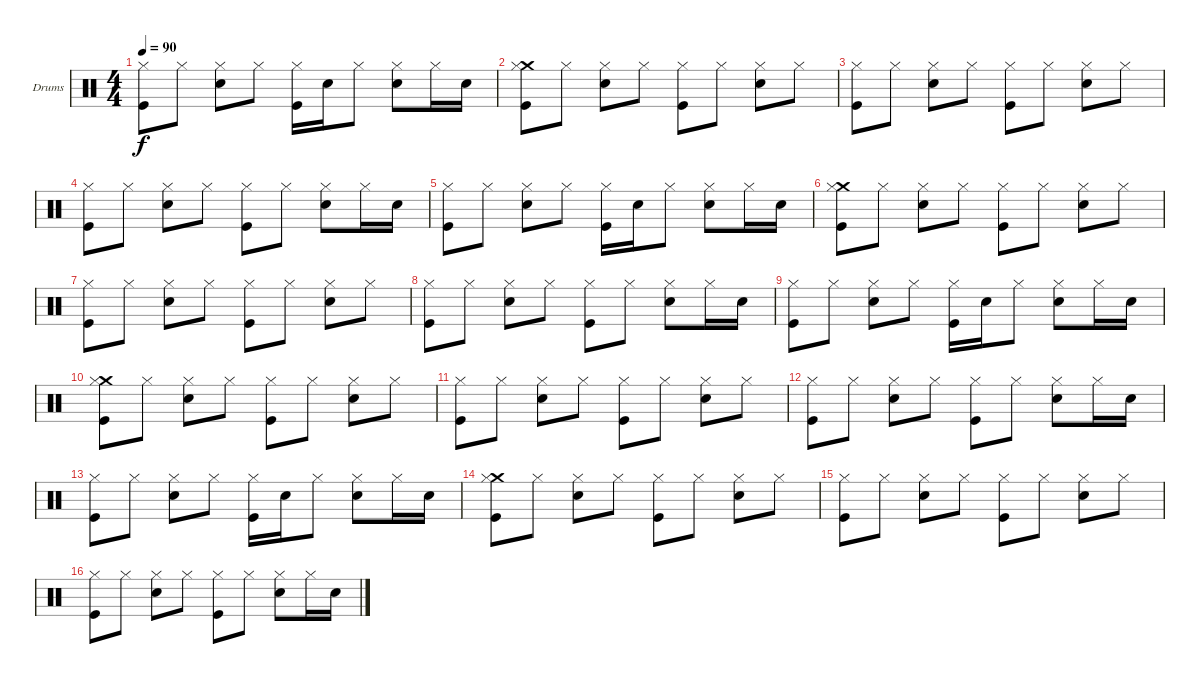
\bracketExtendMode groupsimilarinstruments
\firstSystemTrackNameOrientation horizontal
\otherSystemsTrackNameOrientation horizontal
\track ("Drumkit" "Drums") {instrument percussion}
\staff {score}
\articulation defaults
\ts (4 4)
\tempo 90
\clef neutral
\ks c
("Hi-Hat (closed)" "Kick (hit)").8{dy f} "Hi-Hat (closed)".8 ("Hi-Hat (closed)" "Snare (hit) 2").8 "Hi-Hat (closed)".8 ("Hi-Hat (closed)" "Kick (hit)").16 "Snare (hit) 2".16 "Hi-Hat (closed)".8 ("Hi-Hat (closed)" "Snare (hit) 2").8 "Hi-Hat (closed)".16 "Snare (hit) 2".16 |
("Crash medium (hit)" "Hi-Hat (closed)" "Kick (hit)").8 "Hi-Hat (closed)".8 ("Hi-Hat (closed)" "Snare (hit) 2").8 "Hi-Hat (closed)".8 ("Hi-Hat (closed)" "Kick (hit)").8 "Hi-Hat (closed)".8 ("Hi-Hat (closed)" "Snare (hit) 2").8 "Hi-Hat (closed)".8 |
("Hi-Hat (closed)" "Kick (hit)").8 "Hi-Hat (closed)".8 ("Hi-Hat (closed)" "Snare (hit) 2").8 "Hi-Hat (closed)".8 ("Hi-Hat (closed)" "Kick (hit)").8 "Hi-Hat (closed)".8 ("Hi-Hat (closed)" "Snare (hit) 2").8 "Hi-Hat (closed)".8 |
("Hi-Hat (closed)" "Kick (hit)").8 "Hi-Hat (closed)".8 ("Hi-Hat (closed)" "Snare (hit) 2").8 "Hi-Hat (closed)".8 ("Hi-Hat (closed)" "Kick (hit)").8 "Hi-Hat (closed)".8 ("Hi-Hat (closed)" "Snare (hit) 2").8 "Hi-Hat (closed)".16 "Snare (hit) 2".16 |
("Hi-Hat (closed)" "Kick (hit)").8 "Hi-Hat (closed)".8 ("Hi-Hat (closed)" "Snare (hit) 2").8 "Hi-Hat (closed)".8 ("Hi-Hat (closed)" "Kick (hit)").16 "Snare (hit) 2".16 "Hi-Hat (closed)".8 ("Hi-Hat (closed)" "Snare (hit) 2").8 "Hi-Hat (closed)".16 "Snare (hit) 2".16 |
("Crash medium (hit)" "Hi-Hat (closed)" "Kick (hit)").8 "Hi-Hat (closed)".8 ("Hi-Hat (closed)" "Snare (hit) 2").8 "Hi-Hat (closed)".8 ("Hi-Hat (closed)" "Kick (hit)").8 "Hi-Hat (closed)".8 ("Hi-Hat (closed)" "Snare (hit) 2").8 "Hi-Hat (closed)".8 |
("Hi-Hat (closed)" "Kick (hit)").8 "Hi-Hat (closed)".8 ("Hi-Hat (closed)" "Snare (hit) 2").8 "Hi-Hat (closed)".8 ("Hi-Hat (closed)" "Kick (hit)").8 "Hi-Hat (closed)".8 ("Hi-Hat (closed)" "Snare (hit) 2").8 "Hi-Hat (closed)".8 |
("Hi-Hat (closed)" "Kick (hit)").8 "Hi-Hat (closed)".8 ("Hi-Hat (closed)" "Snare (hit) 2").8 "Hi-Hat (closed)".8 ("Hi-Hat (closed)" "Kick (hit)").8 "Hi-Hat (closed)".8 ("Hi-Hat (closed)" "Snare (hit) 2").8 "Hi-Hat (closed)".16 "Snare (hit) 2".16 |
("Hi-Hat (closed)" "Kick (hit)").8 "Hi-Hat (closed)".8 ("Hi-Hat (closed)" "Snare (hit) 2").8 "Hi-Hat (closed)".8 ("Hi-Hat (closed)" "Kick (hit)").16 "Snare (hit) 2".16 "Hi-Hat (closed)".8 ("Hi-Hat (closed)" "Snare (hit) 2").8 "Hi-Hat (closed)".16 "Snare (hit) 2".16 |
("Crash medium (hit)" "Hi-Hat (closed)" "Kick (hit)").8 "Hi-Hat (closed)".8 ("Hi-Hat (closed)" "Snare (hit) 2").8 "Hi-Hat (closed)".8 ("Hi-Hat (closed)" "Kick (hit)").8 "Hi-Hat (closed)".8 ("Hi-Hat (closed)" "Snare (hit) 2").8 "Hi-Hat (closed)".8 |
("Hi-Hat (closed)" "Kick (hit)").8 "Hi-Hat (closed)".8 ("Hi-Hat (closed)" "Snare (hit) 2").8 "Hi-Hat (closed)".8 ("Hi-Hat (closed)" "Kick (hit)").8 "Hi-Hat (closed)".8 ("Hi-Hat (closed)" "Snare (hit) 2").8 "Hi-Hat (closed)".8 |
("Hi-Hat (closed)" "Kick (hit)").8 "Hi-Hat (closed)".8 ("Hi-Hat (closed)" "Snare (hit) 2").8 "Hi-Hat (closed)".8 ("Hi-Hat (closed)" "Kick (hit)").8 "Hi-Hat (closed)".8 ("Hi-Hat (closed)" "Snare (hit) 2").8 "Hi-Hat (closed)".16 "Snare (hit) 2".16 |
("Hi-Hat (closed)" "Kick (hit)").8 "Hi-Hat (closed)".8 ("Hi-Hat (closed)" "Snare (hit) 2").8 "Hi-Hat (closed)".8 ("Hi-Hat (closed)" "Kick (hit)").16 "Snare (hit) 2".16 "Hi-Hat (closed)".8 ("Hi-Hat (closed)" "Snare (hit) 2").8 "Hi-Hat (closed)".16 "Snare (hit) 2".16 |
("Crash medium (hit)" "Hi-Hat (closed)" "Kick (hit)").8 "Hi-Hat (closed)".8 ("Hi-Hat (closed)" "Snare (hit) 2").8 "Hi-Hat (closed)".8 ("Hi-Hat (closed)" "Kick (hit)").8 "Hi-Hat (closed)".8 ("Hi-Hat (closed)" "Snare (hit) 2").8 "Hi-Hat (closed)".8 |
("Hi-Hat (closed)" "Kick (hit)").8 "Hi-Hat (closed)".8 ("Hi-Hat (closed)" "Snare (hit) 2").8 "Hi-Hat (closed)".8 ("Hi-Hat (closed)" "Kick (hit)").8 "Hi-Hat (closed)".8 ("Hi-Hat (closed)" "Snare (hit) 2").8 "Hi-Hat (closed)".8 |
("Hi-Hat (closed)" "Kick (hit)").8 "Hi-Hat (closed)".8 ("Hi-Hat (closed)" "Snare (hit) 2").8 "Hi-Hat (closed)".8 ("Hi-Hat (closed)" "Kick (hit)").8 "Hi-Hat (closed)".8 ("Hi-Hat (closed)" "Snare (hit) 2").8 "Hi-Hat (closed)".16 "Snare (hit) 2".16
